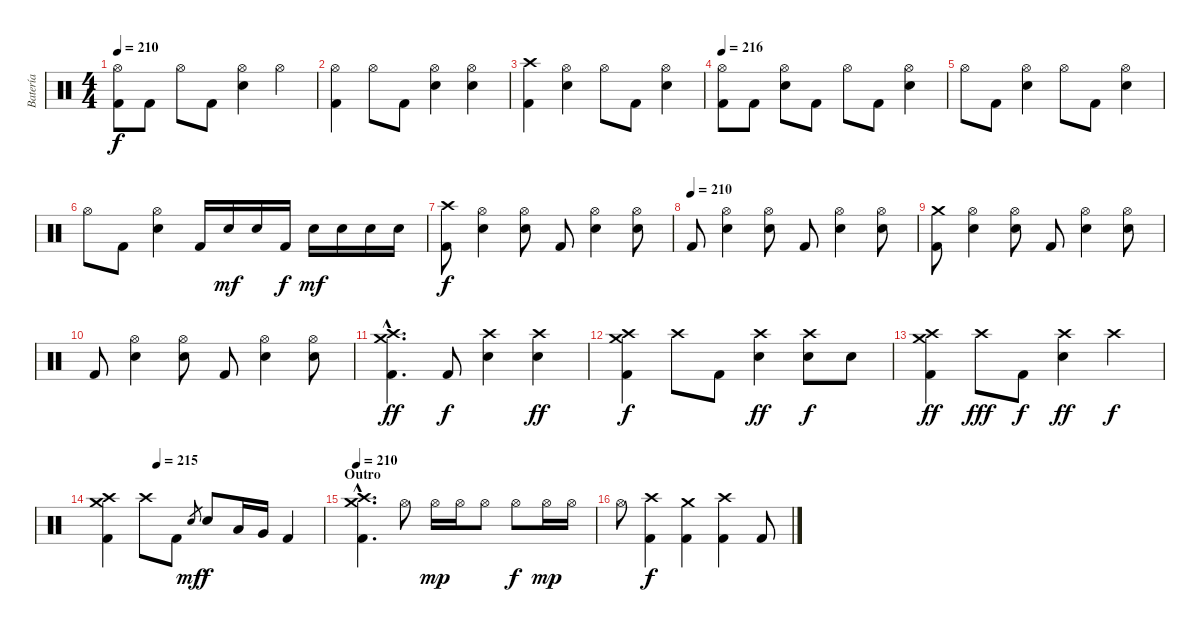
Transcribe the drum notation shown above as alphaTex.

\track ("Batería" "Batería") {instrument percussion}
\staff {score}
\articulation defaults
\ts (4 4)
\tempo 210
\clef neutral
\ks c
("Hi-Hat (open)" "Kick (hit) 2").8{dy f} "Kick (hit) 2".8 "Hi-Hat (open)".8 "Kick (hit) 2".8 ("Hi-Hat (open)" "Electric Snare (hit)").4 "Hi-Hat (open)".4 |
("Hi-Hat (open)" "Kick (hit) 2").4 "Hi-Hat (open)".8 "Kick (hit) 2".8 ("Hi-Hat (open)" "Electric Snare (hit)").4 ("Hi-Hat (open)" "Electric Snare (hit)").4 |
("Crash high (hit)" "Kick (hit) 2").4 ("Hi-Hat (open)" "Electric Snare (hit)").4 "Hi-Hat (open)".8 "Kick (hit) 2".8 ("Hi-Hat (open)" "Electric Snare (hit)").4 |
\tempo 216
("Hi-Hat (open)" "Kick (hit) 2").8 "Kick (hit) 2".8 ("Hi-Hat (open)" "Electric Snare (hit)").8 "Kick (hit) 2".8 "Hi-Hat (open)".8 "Kick (hit) 2".8 ("Hi-Hat (open)" "Electric Snare (hit)").4 |
"Hi-Hat (open)".8 "Kick (hit) 2".8 ("Hi-Hat (open)" "Electric Snare (hit)").4 "Hi-Hat (open)".8 "Kick (hit) 2".8 ("Hi-Hat (open)" "Electric Snare (hit)").4 |
"Hi-Hat (open)".8 "Kick (hit) 2".8 ("Hi-Hat (open)" "Electric Snare (hit)").4 "Kick (hit) 2".16 "Electric Snare (hit)".16{dy mf} "Electric Snare (hit)".16 "Kick (hit) 2".16{dy f} "Electric Snare (hit)".16{dy mf} "Electric Snare (hit)".16 "Electric Snare (hit)".16 "Electric Snare (hit)".16 |
("Crash high (hit)" "Kick (hit) 2").8{dy f} ("Hi-Hat (open)" "Electric Snare (hit)").4 ("Hi-Hat (open)" "Electric Snare (hit)").8 "Kick (hit) 2".8 ("Hi-Hat (open)" "Electric Snare (hit)").4 ("Hi-Hat (open)" "Electric Snare (hit)").8 |
\tempo (210)
"Kick (hit) 2".8 ("Hi-Hat (open)" "Electric Snare (hit)").4 ("Hi-Hat (open)" "Electric Snare (hit)").8 "Kick (hit) 2".8 ("Hi-Hat (open)" "Electric Snare (hit)").4 ("Hi-Hat (open)" "Electric Snare (hit)").8 |
("Crash medium (hit)" "Kick (hit) 2").8 ("Hi-Hat (open)" "Electric Snare (hit)").4 ("Hi-Hat (open)" "Electric Snare (hit)").8 "Kick (hit) 2".8 ("Hi-Hat (open)" "Electric Snare (hit)").4 ("Hi-Hat (open)" "Electric Snare (hit)").8 |
"Kick (hit) 2".8 ("Hi-Hat (open)" "Electric Snare (hit)").4 ("Hi-Hat (open)" "Electric Snare (hit)").8 "Kick (hit) 2".8 ("Hi-Hat (open)" "Electric Snare (hit)").4 ("Hi-Hat (open)" "Electric Snare (hit)").8 |
("Crash medium (hit)"{hac} "Crash high (hit)"{hac} "Kick (hit) 2"{hac}).4{d dy ff} "Kick (hit) 2".8{dy f} ("Crash high (hit)" "Electric Snare (hit)").4 ("Crash high (hit)" "Electric Snare (hit)").4{dy ff} |
("Crash medium (hit)" "Crash high (hit)" "Kick (hit) 2").4{dy f} "Crash high (hit)".8 "Kick (hit) 2".8 ("Crash high (hit)" "Electric Snare (hit)").4{dy ff} ("Crash high (hit)" "Electric Snare (hit)").8{dy f} "Electric Snare (hit)".8 |
("Crash medium (hit)" "Crash high (hit)" "Kick (hit) 2").4{dy ff} "Crash high (hit)".8{dy fff} "Kick (hit) 2".8{dy f} ("Crash high (hit)" "Electric Snare (hit)").4{dy ff} "Crash high (hit)".4{dy f} |
\tempo (215 0.25)
("Crash medium (hit)" "Crash high (hit)" "Kick (hit) 2").4 "Crash high (hit)".8 "Kick (hit) 2".8 "Electric Snare (hit)".8{gr dy mf} "Electric Snare (hit)".8{dy f} "Low Tom (hit)".16 "Very Low Tom (hit)".16 "Kick (hit) 2".4 |
\section ("" "Outro")
\tempo 210
("Crash medium (hit)"{hac} "Crash high (hit)"{hac} "Kick (hit) 2"{hac}).4{d} "Hi-Hat (open)".8 "Hi-Hat (open)".16{dy mp} "Hi-Hat (open)".16 "Hi-Hat (open)".8 "Hi-Hat (open)".8{dy f} "Hi-Hat (open)".16{dy mp} "Hi-Hat (open)".16 |
"Hi-Hat (open)".8 ("Crash high (hit)" "Kick (hit) 2").4{dy f} ("Crash medium (hit)" "Kick (hit) 2").4 ("Crash high (hit)" "Kick (hit) 2").4 "Kick (hit) 2".8
